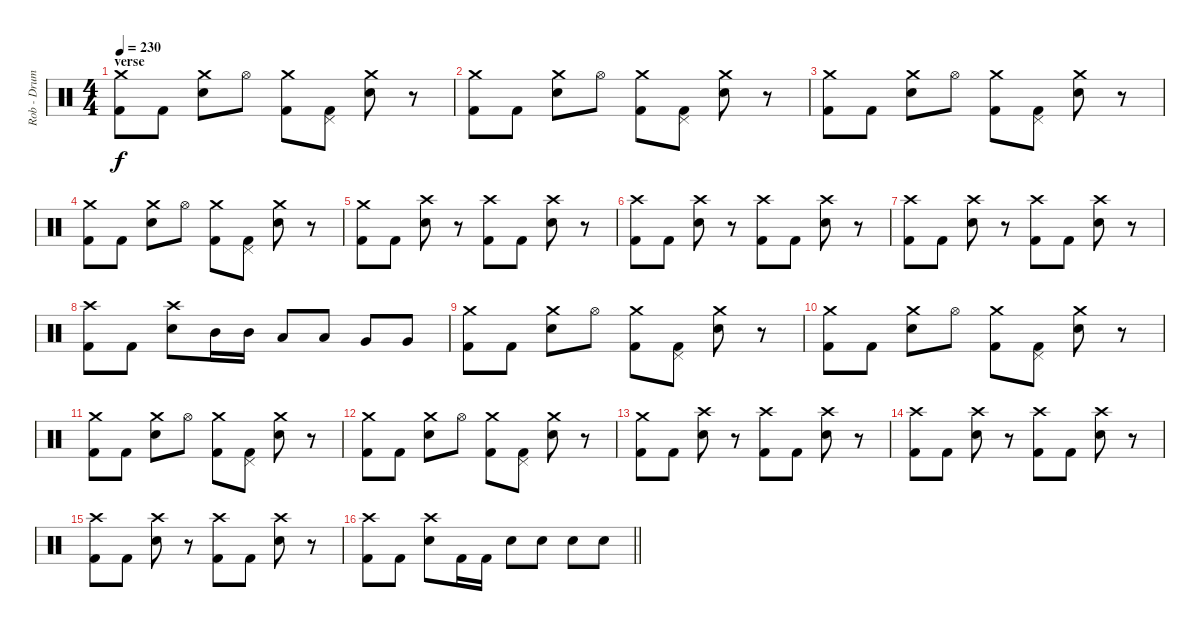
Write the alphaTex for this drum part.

\track ("Rob - Drums" "Rob - Drum") {instrument percussion}
\staff {score}
\articulation defaults
\ts (4 4)
\section ("" "verse")
\tempo 230
\clef neutral
\ks c
("Crash medium (hit)" "Kick (hit) 2").8{dy f} "Kick (hit) 2".8 ("Crash medium (hit)" "Electric Snare (hit)").8 "Hi-Hat (open)".8 ("Crash medium (hit)" "Kick (hit) 2").8 ("Pedal Hi-Hat (hit)" "Kick (hit) 2").8 ("Crash medium (hit)" "Electric Snare (hit)").8 r.8 |
("Crash medium (hit)" "Kick (hit) 2").8 "Kick (hit) 2".8 ("Crash medium (hit)" "Electric Snare (hit)").8 "Hi-Hat (open)".8 ("Crash medium (hit)" "Kick (hit) 2").8 ("Pedal Hi-Hat (hit)" "Kick (hit) 2").8 ("Crash medium (hit)" "Electric Snare (hit)").8 r.8 |
("Crash medium (hit)" "Kick (hit) 2").8 "Kick (hit) 2".8 ("Crash medium (hit)" "Electric Snare (hit)").8 "Hi-Hat (open)".8 ("Crash medium (hit)" "Kick (hit) 2").8 ("Pedal Hi-Hat (hit)" "Kick (hit) 2").8 ("Crash medium (hit)" "Electric Snare (hit)").8 r.8 |
("Crash medium (hit)" "Kick (hit) 2").8 "Kick (hit) 2".8 ("Crash medium (hit)" "Electric Snare (hit)").8 "Hi-Hat (open)".8 ("Crash medium (hit)" "Kick (hit) 2").8 ("Pedal Hi-Hat (hit)" "Kick (hit) 2").8 ("Crash medium (hit)" "Electric Snare (hit)").8 r.8 |
("Crash medium (hit)" "Kick (hit) 2").8 "Kick (hit) 2".8 ("Crash high (hit)" "Electric Snare (hit)").8 r.8 ("Crash high (hit)" "Kick (hit) 2").8 "Kick (hit) 2".8 ("Crash high (hit)" "Electric Snare (hit)").8 r.8 |
("Crash high (hit)" "Kick (hit) 2").8 "Kick (hit) 2".8 ("Crash high (hit)" "Electric Snare (hit)").8 r.8 ("Crash high (hit)" "Kick (hit) 2").8 "Kick (hit) 2".8 ("Crash high (hit)" "Electric Snare (hit)").8 r.8 |
("Crash high (hit)" "Kick (hit) 2").8 "Kick (hit) 2".8 ("Crash high (hit)" "Electric Snare (hit)").8 r.8 ("Crash high (hit)" "Kick (hit) 2").8 "Kick (hit) 2".8 ("Crash high (hit)" "Electric Snare (hit)").8 r.8 |
("Crash high (hit)" "Kick (hit) 2").8 "Kick (hit) 2".8 ("Crash high (hit)" "Electric Snare (hit)").8 "Mid Tom (hit)".16 "Mid Tom (hit)".16 "Low Tom (hit)".8 "Low Tom (hit)".8 "Very Low Tom (hit)".8 "Very Low Tom (hit)".8 |
("Crash medium (hit)" "Kick (hit) 2").8 "Kick (hit) 2".8 ("Crash medium (hit)" "Electric Snare (hit)").8 "Hi-Hat (open)".8 ("Crash medium (hit)" "Kick (hit) 2").8 ("Pedal Hi-Hat (hit)" "Kick (hit) 2").8 ("Crash medium (hit)" "Electric Snare (hit)").8 r.8 |
("Crash medium (hit)" "Kick (hit) 2").8 "Kick (hit) 2".8 ("Crash medium (hit)" "Electric Snare (hit)").8 "Hi-Hat (open)".8 ("Crash medium (hit)" "Kick (hit) 2").8 ("Pedal Hi-Hat (hit)" "Kick (hit) 2").8 ("Crash medium (hit)" "Electric Snare (hit)").8 r.8 |
("Crash medium (hit)" "Kick (hit) 2").8 "Kick (hit) 2".8 ("Crash medium (hit)" "Electric Snare (hit)").8 "Hi-Hat (open)".8 ("Crash medium (hit)" "Kick (hit) 2").8 ("Pedal Hi-Hat (hit)" "Kick (hit) 2").8 ("Crash medium (hit)" "Electric Snare (hit)").8 r.8 |
("Crash medium (hit)" "Kick (hit) 2").8 "Kick (hit) 2".8 ("Crash medium (hit)" "Electric Snare (hit)").8 "Hi-Hat (open)".8 ("Crash medium (hit)" "Kick (hit) 2").8 ("Pedal Hi-Hat (hit)" "Kick (hit) 2").8 ("Crash medium (hit)" "Electric Snare (hit)").8 r.8 |
("Crash medium (hit)" "Kick (hit) 2").8 "Kick (hit) 2".8 ("Crash high (hit)" "Electric Snare (hit)").8 r.8 ("Crash high (hit)" "Kick (hit) 2").8 "Kick (hit) 2".8 ("Crash high (hit)" "Electric Snare (hit)").8 r.8 |
("Crash high (hit)" "Kick (hit) 2").8 "Kick (hit) 2".8 ("Crash high (hit)" "Electric Snare (hit)").8 r.8 ("Crash high (hit)" "Kick (hit) 2").8 "Kick (hit) 2".8 ("Crash high (hit)" "Electric Snare (hit)").8 r.8 |
("Crash high (hit)" "Kick (hit) 2").8 "Kick (hit) 2".8 ("Crash high (hit)" "Electric Snare (hit)").8 r.8 ("Crash high (hit)" "Kick (hit) 2").8 "Kick (hit) 2".8 ("Crash high (hit)" "Electric Snare (hit)").8 r.8 |
\barLineRight lightlight
("Crash high (hit)" "Kick (hit) 2").8 "Kick (hit) 2".8 ("Crash high (hit)" "Electric Snare (hit)").8 "Kick (hit) 2".16 "Kick (hit) 2".16 "Electric Snare (hit)".8 "Electric Snare (hit)".8 "Electric Snare (hit)".8 "Electric Snare (hit)".8
